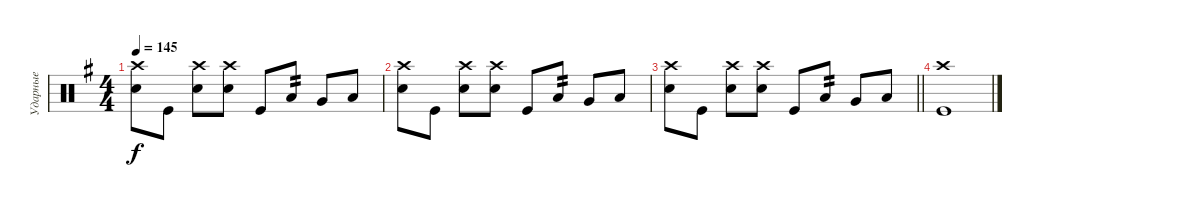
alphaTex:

\track ("Ударные" "Ударные") {instrument percussion}
\staff {score}
\articulation defaults
\ts (4 4)
\tempo 145
\clef neutral
\ks eminor
("Crash high (hit)" "Snare (hit) 2").8{dy f} "Kick (hit)".8 ("Crash high (hit)" "Snare (hit) 2").8 ("Crash high (hit)" "Snare (hit) 2").8 "Kick (hit)".8 "Low Tom (hit)".8{tp 2} "Very Low Tom (hit)".8 "Low Floor Tom (hit)".8 |
("Crash high (hit)" "Snare (hit) 2").8 "Kick (hit)".8 ("Crash high (hit)" "Snare (hit) 2").8 ("Crash high (hit)" "Snare (hit) 2").8 "Kick (hit)".8 "Low Tom (hit)".8{tp 2} "Very Low Tom (hit)".8 "Low Floor Tom (hit)".8 |
\barLineRight lightlight
("Crash high (hit)" "Snare (hit) 2").8 "Kick (hit)".8 ("Crash high (hit)" "Snare (hit) 2").8 ("Crash high (hit)" "Snare (hit) 2").8 "Kick (hit)".8 "Low Tom (hit)".8{tp 2} "Very Low Tom (hit)".8 "Low Floor Tom (hit)".8 |
("Crash high (hit)" "Kick (hit)").1
